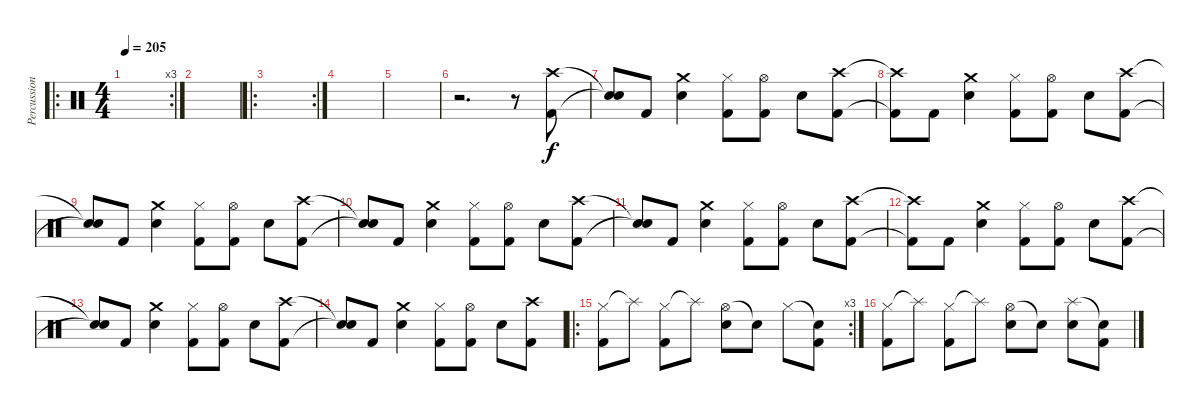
\track ("Percussion" "Percussion") {instrument percussion}
\staff {score}
\articulation defaults
\ro
\rc 3
\ts (4 4)
\tempo 205
\clef neutral
\ks c
|
|
\ro
\rc 2
|
|
|
r.2{d} r.8 ("Crash high (hit)" "Kick (hit) 2").8 |
("Snare (hit)"{t} "Snare (hit)"{t}).8 "Kick (hit) 2".8 ("Crash medium (hit)" "Electric Snare (hit)").4 ("Hi-Hat (closed)" "Kick (hit) 2").8 ("Hi-Hat (open)" "Kick (hit) 2").8 "Electric Snare (hit)".8 ("Crash high (hit)" "Kick (hit) 2").8 |
("Crash high (hit)"{t} "Kick (hit) 2"{t}).8 "Kick (hit) 2".8 ("Crash medium (hit)" "Electric Snare (hit)").4 ("Hi-Hat (closed)" "Kick (hit) 2").8 ("Hi-Hat (open)" "Kick (hit) 2").8 "Electric Snare (hit)".8 ("Crash high (hit)" "Kick (hit) 2").8 |
("Snare (hit)"{t} "Snare (hit)"{t}).8 "Kick (hit) 2".8 ("Crash medium (hit)" "Electric Snare (hit)").4 ("Hi-Hat (closed)" "Kick (hit) 2").8 ("Hi-Hat (open)" "Kick (hit) 2").8 "Electric Snare (hit)".8 ("Crash high (hit)" "Kick (hit) 2").8 |
("Snare (hit)"{t} "Snare (hit)"{t}).8 "Kick (hit) 2".8 ("Crash medium (hit)" "Electric Snare (hit)").4 ("Hi-Hat (closed)" "Kick (hit) 2").8 ("Hi-Hat (open)" "Kick (hit) 2").8 "Electric Snare (hit)".8 ("Crash high (hit)" "Kick (hit) 2").8 |
("Snare (hit)"{t} "Snare (hit)"{t}).8 "Kick (hit) 2".8 ("Crash medium (hit)" "Electric Snare (hit)").4 ("Hi-Hat (closed)" "Kick (hit) 2").8 ("Hi-Hat (open)" "Kick (hit) 2").8 "Electric Snare (hit)".8 ("Crash high (hit)" "Kick (hit) 2").8 |
("Crash high (hit)"{t} "Kick (hit) 2"{t}).8 "Kick (hit) 2".8 ("Crash medium (hit)" "Electric Snare (hit)").4 ("Hi-Hat (closed)" "Kick (hit) 2").8 ("Hi-Hat (open)" "Kick (hit) 2").8 "Electric Snare (hit)".8 ("Crash high (hit)" "Kick (hit) 2").8 |
("Snare (hit)"{t} "Snare (hit)"{t}).8 "Kick (hit) 2".8 ("Crash medium (hit)" "Electric Snare (hit)").4 ("Hi-Hat (closed)" "Kick (hit) 2").8 ("Hi-Hat (open)" "Kick (hit) 2").8 "Electric Snare (hit)".8 ("Crash high (hit)" "Kick (hit) 2").8 |
("Snare (hit)"{t} "Snare (hit)"{t}).8 "Kick (hit) 2".8 ("Crash medium (hit)" "Electric Snare (hit)").4 ("Hi-Hat (closed)" "Kick (hit) 2").8 ("Hi-Hat (open)" "Kick (hit) 2").8 "Electric Snare (hit)".8 ("Crash high (hit)" "Kick (hit) 2").8 |
\ro
\rc 3
("Hi-Hat (closed)" "Kick (hit) 2").8 "Splash (hit)"{t}.8 ("Hi-Hat (closed)" "Kick (hit) 2").8 "Splash (hit)"{t}.8 ("Hi-Hat (open)" "Electric Snare (hit)").8 "Snare (hit)"{t}.8 "Hi-Hat (closed)".8 ("Snare (hit)"{t} "Kick (hit) 2").8 |
("Hi-Hat (closed)" "Kick (hit) 2").8 "Splash (hit)"{t}.8 ("Hi-Hat (closed)" "Kick (hit) 2").8 "Splash (hit)"{t}.8 ("Hi-Hat (open)" "Electric Snare (hit)").8 "Snare (hit)"{t}.8 ("Splash (hit)" "Electric Snare (hit)").8 ("Snare (hit)"{t} "Kick (hit) 2").8
